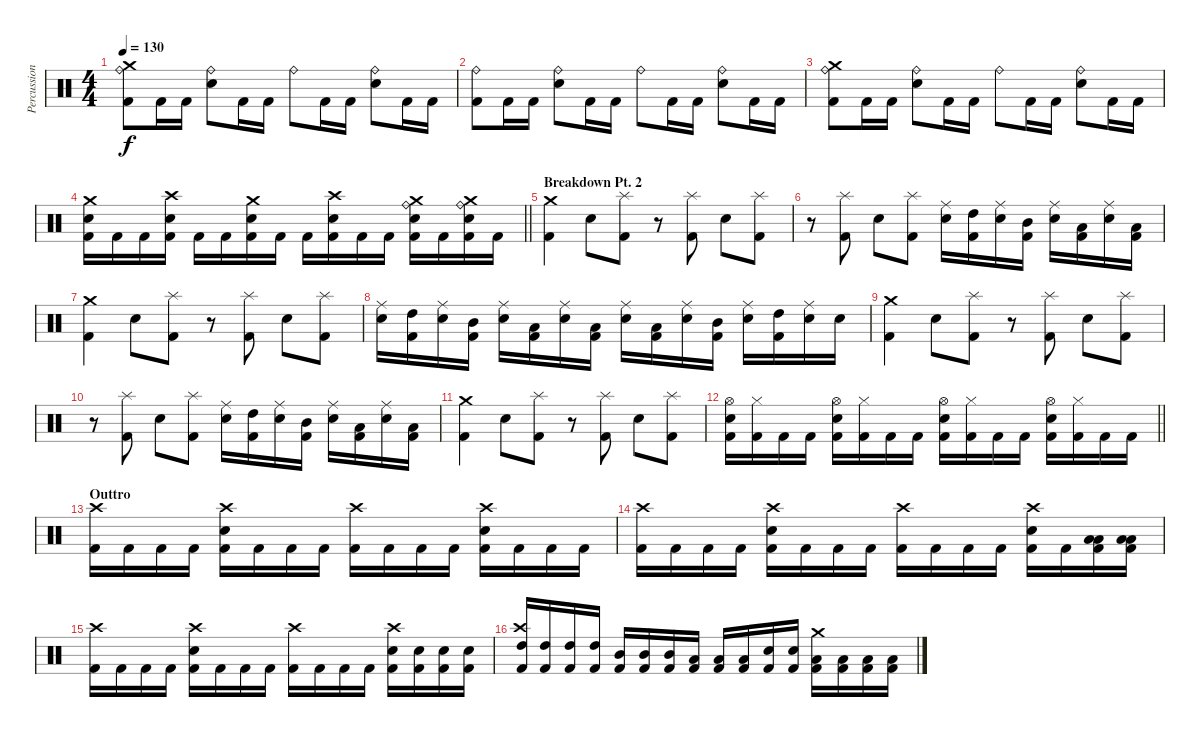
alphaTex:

\track ("Percussion" "Percussion") {instrument percussion}
\staff {score}
\articulation defaults
\ts (4 4)
\tempo 130
\clef neutral
\ks c
("Crash medium (hit)" "Ride (bell)" "Kick (hit) 2").8{dy f} "Kick (hit) 2".16 "Kick (hit) 2".16 ("Ride (bell)" "Electric Snare (hit)").8 "Kick (hit) 2".16 "Kick (hit) 2".16 "Ride (bell)".8 "Kick (hit) 2".16 "Kick (hit) 2".16 ("Ride (bell)" "Electric Snare (hit)").8 "Kick (hit) 2".16 "Kick (hit) 2".16 |
("Ride (bell)" "Kick (hit) 2").8 "Kick (hit) 2".16 "Kick (hit) 2".16 ("Ride (bell)" "Electric Snare (hit)").8 "Kick (hit) 2".16 "Kick (hit) 2".16 "Ride (bell)".8 "Kick (hit) 2".16 "Kick (hit) 2".16 ("Ride (bell)" "Electric Snare (hit)").8 "Kick (hit) 2".16 "Kick (hit) 2".16 |
("Crash medium (hit)" "Ride (bell)" "Kick (hit) 2").8 "Kick (hit) 2".16 "Kick (hit) 2".16 ("Ride (bell)" "Electric Snare (hit)").8 "Kick (hit) 2".16 "Kick (hit) 2".16 "Ride (bell)".8 "Kick (hit) 2".16 "Kick (hit) 2".16 ("Ride (bell)" "Electric Snare (hit)").8 "Kick (hit) 2".16 "Kick (hit) 2".16 |
\barLineRight lightlight
("Crash medium (hit)" "Electric Snare (hit)" "Kick (hit) 2").16 "Kick (hit) 2".16 "Kick (hit) 2".16 ("Crash high (hit)" "Electric Snare (hit)" "Kick (hit) 2").16 "Kick (hit) 2".16 "Kick (hit) 2".16 ("Crash medium (hit)" "Electric Snare (hit)" "Kick (hit) 2").16 "Kick (hit) 2".16 "Kick (hit) 2".16 ("Crash high (hit)" "Electric Snare (hit)" "Kick (hit) 2").16 "Kick (hit) 2".16 "Kick (hit) 2".16 ("Crash medium (hit)" "Ride (bell)" "Electric Snare (hit)" "Kick (hit) 2").16 "Kick (hit) 2".16 ("Crash medium (hit)" "Ride (bell)" "Electric Snare (hit)" "Kick (hit) 2").16 "Kick (hit) 2".16 |
\section ("" "Breakdown Pt. 2")
("Crash medium (hit)" "Kick (hit) 2").4 "Electric Snare (hit)".8 ("Splash (hit)" "Kick (hit) 2").8 r.8 ("Splash (hit)" "Kick (hit) 2").8 "Electric Snare (hit)".8 ("Splash (hit)" "Kick (hit) 2").8 |
r.8 ("Splash (hit)" "Kick (hit) 2").8 "Electric Snare (hit)".8 ("Splash (hit)" "Kick (hit) 2").8 ("Ride (middle)" "Electric Snare (hit)").16 ("High Tom (hit)" "Kick (hit) 2").16 ("Ride (middle)" "Electric Snare (hit)").16 ("Mid Tom (hit)" "Kick (hit) 2").16 ("Ride (middle)" "Electric Snare (hit)").16 ("Low Tom (hit)" "Kick (hit) 2").16 ("Ride (middle)" "Electric Snare (hit)").16 ("Low Floor Tom (hit)" "Kick (hit) 2").16 |
("Crash medium (hit)" "Kick (hit) 2").4 "Electric Snare (hit)".8 ("Splash (hit)" "Kick (hit) 2").8 r.8 ("Splash (hit)" "Kick (hit) 2").8 "Electric Snare (hit)".8 ("Splash (hit)" "Kick (hit) 2").8 |
("Ride (middle)" "Electric Snare (hit)").16 ("High Tom (hit)" "Kick (hit) 2").16 ("Ride (middle)" "Electric Snare (hit)").16 ("Mid Tom (hit)" "Kick (hit) 2").16 ("Ride (middle)" "Electric Snare (hit)").16 ("Low Tom (hit)" "Kick (hit) 2").16 ("Ride (middle)" "Electric Snare (hit)").16 ("Low Floor Tom (hit)" "Kick (hit) 2").16 ("Ride (middle)" "Electric Snare (hit)").16 ("Low Tom (hit)" "Kick (hit) 2").16 ("Ride (middle)" "Electric Snare (hit)").16 ("Mid Tom (hit)" "Kick (hit) 2").16 ("Ride (middle)" "Electric Snare (hit)").16 ("High Tom (hit)" "Kick (hit) 2").16 ("Ride (middle)" "Electric Snare (hit)").16 "Electric Snare (hit)".16 |
("Crash medium (hit)" "Kick (hit) 2").4 "Electric Snare (hit)".8 ("Splash (hit)" "Kick (hit) 2").8 r.8 ("Splash (hit)" "Kick (hit) 2").8 "Electric Snare (hit)".8 ("Splash (hit)" "Kick (hit) 2").8 |
r.8 ("Splash (hit)" "Kick (hit) 2").8 "Electric Snare (hit)".8 ("Splash (hit)" "Kick (hit) 2").8 ("Ride (middle)" "Electric Snare (hit)").16 ("High Tom (hit)" "Kick (hit) 2").16 ("Ride (middle)" "Electric Snare (hit)").16 ("Mid Tom (hit)" "Kick (hit) 2").16 ("Ride (middle)" "Electric Snare (hit)").16 ("Low Tom (hit)" "Kick (hit) 2").16 ("Ride (middle)" "Electric Snare (hit)").16 ("Low Floor Tom (hit)" "Kick (hit) 2").16 |
("Crash medium (hit)" "Kick (hit) 2").4 "Electric Snare (hit)".8 ("Splash (hit)" "Kick (hit) 2").8 r.8 ("Splash (hit)" "Kick (hit) 2").8 "Electric Snare (hit)".8 ("Splash (hit)" "Kick (hit) 2").8 |
\barLineRight lightlight
("Hi-Hat (open)" "Electric Snare (hit)" "Kick (hit) 2").16 ("Hi-Hat (closed)" "Kick (hit) 2").16 "Kick (hit) 2".16 "Kick (hit) 2".16 ("Hi-Hat (open)" "Electric Snare (hit)" "Kick (hit) 2").16 ("Hi-Hat (closed)" "Kick (hit) 2").16 "Kick (hit) 2".16 "Kick (hit) 2".16 ("Hi-Hat (open)" "Electric Snare (hit)" "Kick (hit) 2").16 ("Hi-Hat (closed)" "Kick (hit) 2").16 "Kick (hit) 2".16 "Kick (hit) 2".16 ("Hi-Hat (open)" "Electric Snare (hit)" "Kick (hit) 2").16 ("Hi-Hat (closed)" "Kick (hit) 2").16 "Kick (hit) 2".16 "Kick (hit) 2".16 |
\section ("" "Outtro")
("Crash high (hit)" "Kick (hit) 2").16 "Kick (hit) 2".16 "Kick (hit) 2".16 "Kick (hit) 2".16 ("Crash high (hit)" "Electric Snare (hit)" "Kick (hit) 2").16 "Kick (hit) 2".16 "Kick (hit) 2".16 "Kick (hit) 2".16 ("Crash high (hit)" "Kick (hit) 2").16 "Kick (hit) 2".16 "Kick (hit) 2".16 "Kick (hit) 2".16 ("Crash high (hit)" "Electric Snare (hit)" "Kick (hit) 2").16 "Kick (hit) 2".16 "Kick (hit) 2".16 "Kick (hit) 2".16 |
("Crash high (hit)" "Kick (hit) 2").16 "Kick (hit) 2".16 "Kick (hit) 2".16 "Kick (hit) 2".16 ("Crash high (hit)" "Electric Snare (hit)" "Kick (hit) 2").16 "Kick (hit) 2".16 "Kick (hit) 2".16 "Kick (hit) 2".16 ("Crash high (hit)" "Kick (hit) 2").16 "Kick (hit) 2".16 "Kick (hit) 2".16 "Kick (hit) 2".16 ("Crash high (hit)" "Electric Snare (hit)" "Kick (hit) 2").16 "Kick (hit) 2".16 ("Low Tom (hit)" "Low Tom (hit)" "Kick (hit) 2").16 ("Low Tom (hit)" "Low Tom (hit)" "Kick (hit) 2").16 |
("Crash high (hit)" "Kick (hit) 2").16 "Kick (hit) 2".16 "Kick (hit) 2".16 "Kick (hit) 2".16 ("Crash high (hit)" "Electric Snare (hit)" "Kick (hit) 2").16 "Kick (hit) 2".16 "Kick (hit) 2".16 "Kick (hit) 2".16 ("Crash high (hit)" "Kick (hit) 2").16 "Kick (hit) 2".16 "Kick (hit) 2".16 "Kick (hit) 2".16 ("Crash high (hit)" "Electric Snare (hit)" "Kick (hit) 2").16 ("Electric Snare (hit)" "Kick (hit) 2").16 ("Electric Snare (hit)" "Kick (hit) 2").16 ("Electric Snare (hit)" "Kick (hit) 2").16 |
("Crash high (hit)" "High Tom (hit)" "Kick (hit) 2").16 ("High Tom (hit)" "Kick (hit) 2").16 ("High Tom (hit)" "Kick (hit) 2").16 ("High Tom (hit)" "Kick (hit) 2").16 ("Mid Tom (hit)" "Kick (hit) 2").16 ("Mid Tom (hit)" "Kick (hit) 2").16 ("Mid Tom (hit)" "Kick (hit) 2").16 ("Low Tom (hit)" "Kick (hit) 2").16 ("Low Tom (hit)" "Kick (hit) 2").16 ("Low Tom (hit)" "Kick (hit) 2").16 ("Electric Snare (hit)" "Kick (hit) 2").16 ("Electric Snare (hit)" "Kick (hit) 2").16 ("Crash medium (hit)" "Low Floor Tom (hit)" "Kick (hit) 2").16 ("Low Floor Tom (hit)" "Kick (hit) 2").16 ("Low Floor Tom (hit)" "Kick (hit) 2").16 ("Low Floor Tom (hit)" "Kick (hit) 2").16
